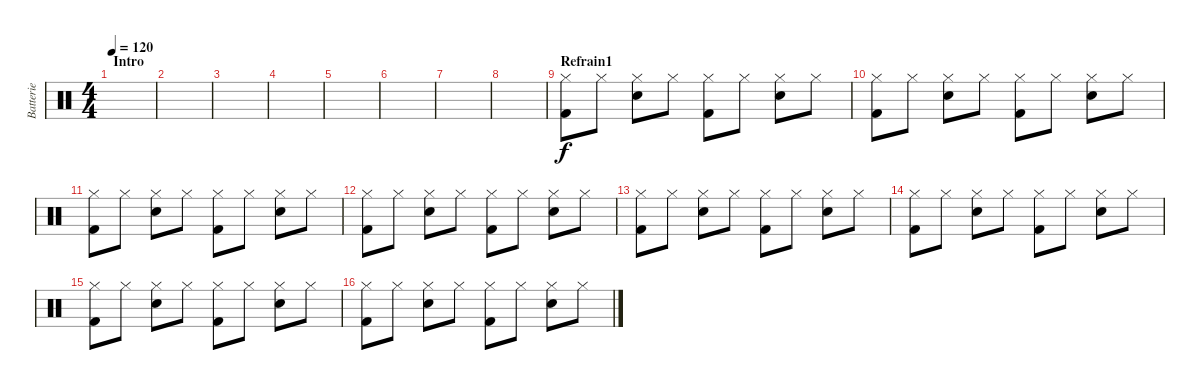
\track ("Batterie" "Batterie") {instrument percussion}
\staff {score}
\articulation defaults
\ts (4 4)
\section ("" "Intro")
\tempo 120
\clef neutral
\ks c
|
|
|
|
|
|
|
|
\section ("" "Refrain1")
("Hi-Hat (closed)" "Kick (hit) 2").8 "Hi-Hat (closed)".8 ("Hi-Hat (closed)" "Electric Snare (hit)").8 "Hi-Hat (closed)".8 ("Hi-Hat (closed)" "Kick (hit) 2").8 "Hi-Hat (closed)".8 ("Hi-Hat (closed)" "Electric Snare (hit)").8 "Hi-Hat (closed)".8 |
("Hi-Hat (closed)" "Kick (hit) 2").8 "Hi-Hat (closed)".8 ("Hi-Hat (closed)" "Electric Snare (hit)").8 "Hi-Hat (closed)".8 ("Hi-Hat (closed)" "Kick (hit) 2").8 "Hi-Hat (closed)".8 ("Hi-Hat (closed)" "Electric Snare (hit)").8 "Hi-Hat (closed)".8 |
("Hi-Hat (closed)" "Kick (hit) 2").8 "Hi-Hat (closed)".8 ("Hi-Hat (closed)" "Electric Snare (hit)").8 "Hi-Hat (closed)".8 ("Hi-Hat (closed)" "Kick (hit) 2").8 "Hi-Hat (closed)".8 ("Hi-Hat (closed)" "Electric Snare (hit)").8 "Hi-Hat (closed)".8 |
("Hi-Hat (closed)" "Kick (hit) 2").8 "Hi-Hat (closed)".8 ("Hi-Hat (closed)" "Electric Snare (hit)").8 "Hi-Hat (closed)".8 ("Hi-Hat (closed)" "Kick (hit) 2").8 "Hi-Hat (closed)".8 ("Hi-Hat (closed)" "Electric Snare (hit)").8 "Hi-Hat (closed)".8 |
("Hi-Hat (closed)" "Kick (hit) 2").8 "Hi-Hat (closed)".8 ("Hi-Hat (closed)" "Electric Snare (hit)").8 "Hi-Hat (closed)".8 ("Hi-Hat (closed)" "Kick (hit) 2").8 "Hi-Hat (closed)".8 ("Hi-Hat (closed)" "Electric Snare (hit)").8 "Hi-Hat (closed)".8 |
("Hi-Hat (closed)" "Kick (hit) 2").8 "Hi-Hat (closed)".8 ("Hi-Hat (closed)" "Electric Snare (hit)").8 "Hi-Hat (closed)".8 ("Hi-Hat (closed)" "Kick (hit) 2").8 "Hi-Hat (closed)".8 ("Hi-Hat (closed)" "Electric Snare (hit)").8 "Hi-Hat (closed)".8 |
("Hi-Hat (closed)" "Kick (hit) 2").8 "Hi-Hat (closed)".8 ("Hi-Hat (closed)" "Electric Snare (hit)").8 "Hi-Hat (closed)".8 ("Hi-Hat (closed)" "Kick (hit) 2").8 "Hi-Hat (closed)".8 ("Hi-Hat (closed)" "Electric Snare (hit)").8 "Hi-Hat (closed)".8 |
("Hi-Hat (closed)" "Kick (hit) 2").8 "Hi-Hat (closed)".8 ("Hi-Hat (closed)" "Electric Snare (hit)").8 "Hi-Hat (closed)".8 ("Hi-Hat (closed)" "Kick (hit) 2").8 "Hi-Hat (closed)".8 ("Hi-Hat (closed)" "Electric Snare (hit)").8 "Hi-Hat (closed)".8
